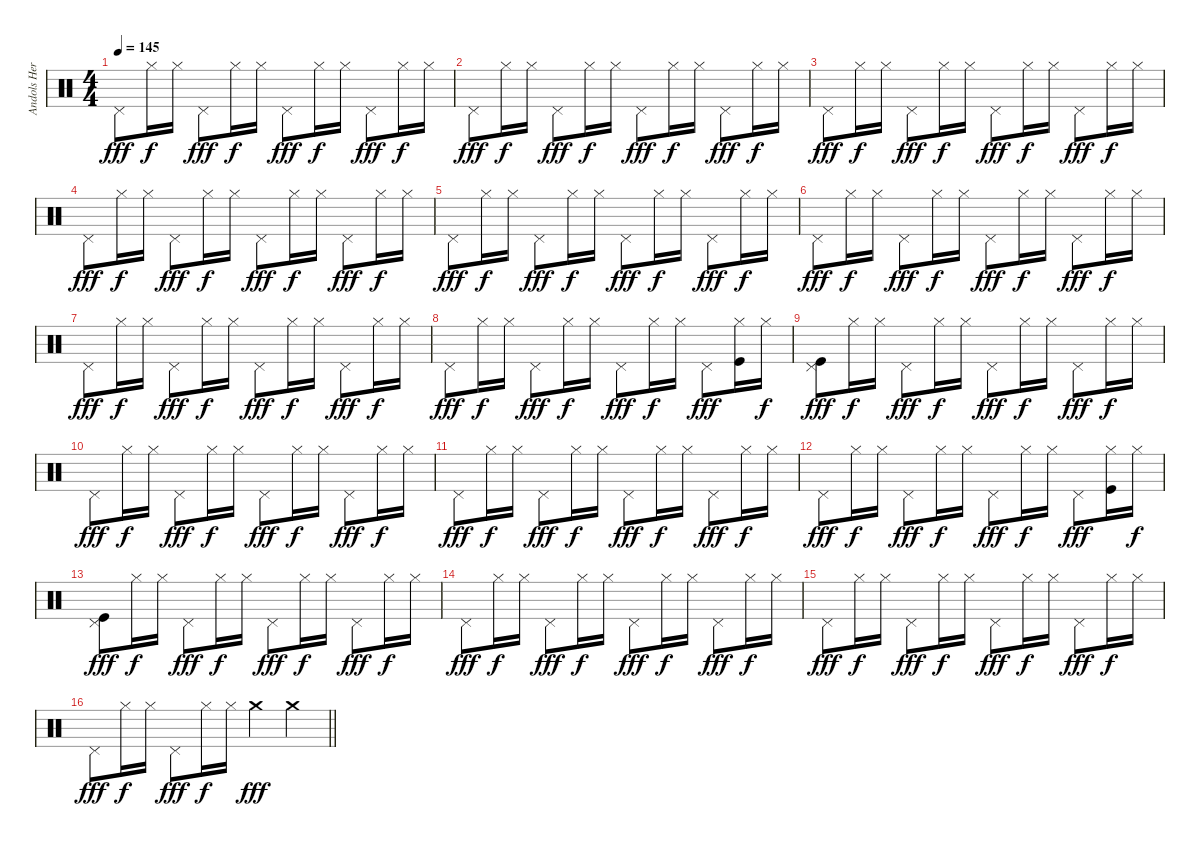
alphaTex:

\track ("Andols Herrick" "Andols Her") {instrument percussion}
\staff {score}
\articulation defaults
\ts (4 4)
\tempo 145
\clef neutral
\ks c "Pedal Hi-Hat (hit)".8{dy fff} "Hi-Hat (closed)".16{dy f} "Hi-Hat (closed)".16 "Pedal Hi-Hat (hit)".8{dy fff} "Hi-Hat (closed)".16{dy f} "Hi-Hat (closed)".16 "Pedal Hi-Hat (hit)".8{dy fff} "Hi-Hat (closed)".16{dy f} "Hi-Hat (closed)".16 "Pedal Hi-Hat (hit)".8{dy fff} "Hi-Hat (closed)".16{dy f} "Hi-Hat (closed)".16
|
"Pedal Hi-Hat (hit)".8{dy fff} "Hi-Hat (closed)".16{dy f} "Hi-Hat (closed)".16 "Pedal Hi-Hat (hit)".8{dy fff} "Hi-Hat (closed)".16{dy f} "Hi-Hat (closed)".16 "Pedal Hi-Hat (hit)".8{dy fff} "Hi-Hat (closed)".16{dy f} "Hi-Hat (closed)".16 "Pedal Hi-Hat (hit)".8{dy fff} "Hi-Hat (closed)".16{dy f} "Hi-Hat (closed)".16 |
"Pedal Hi-Hat (hit)".8{dy fff} "Hi-Hat (closed)".16{dy f} "Hi-Hat (closed)".16 "Pedal Hi-Hat (hit)".8{dy fff} "Hi-Hat (closed)".16{dy f} "Hi-Hat (closed)".16 "Pedal Hi-Hat (hit)".8{dy fff} "Hi-Hat (closed)".16{dy f} "Hi-Hat (closed)".16 "Pedal Hi-Hat (hit)".8{dy fff} "Hi-Hat (closed)".16{dy f} "Hi-Hat (closed)".16 |
"Pedal Hi-Hat (hit)".8{dy fff} "Hi-Hat (closed)".16{dy f} "Hi-Hat (closed)".16 "Pedal Hi-Hat (hit)".8{dy fff} "Hi-Hat (closed)".16{dy f} "Hi-Hat (closed)".16 "Pedal Hi-Hat (hit)".8{dy fff} "Hi-Hat (closed)".16{dy f} "Hi-Hat (closed)".16 "Pedal Hi-Hat (hit)".8{dy fff} "Hi-Hat (closed)".16{dy f} "Hi-Hat (closed)".16 |
"Pedal Hi-Hat (hit)".8{dy fff} "Hi-Hat (closed)".16{dy f} "Hi-Hat (closed)".16 "Pedal Hi-Hat (hit)".8{dy fff} "Hi-Hat (closed)".16{dy f} "Hi-Hat (closed)".16 "Pedal Hi-Hat (hit)".8{dy fff} "Hi-Hat (closed)".16{dy f} "Hi-Hat (closed)".16 "Pedal Hi-Hat (hit)".8{dy fff} "Hi-Hat (closed)".16{dy f} "Hi-Hat (closed)".16 |
"Pedal Hi-Hat (hit)".8{dy fff} "Hi-Hat (closed)".16{dy f} "Hi-Hat (closed)".16 "Pedal Hi-Hat (hit)".8{dy fff} "Hi-Hat (closed)".16{dy f} "Hi-Hat (closed)".16 "Pedal Hi-Hat (hit)".8{dy fff} "Hi-Hat (closed)".16{dy f} "Hi-Hat (closed)".16 "Pedal Hi-Hat (hit)".8{dy fff} "Hi-Hat (closed)".16{dy f} "Hi-Hat (closed)".16 |
"Pedal Hi-Hat (hit)".8{dy fff} "Hi-Hat (closed)".16{dy f} "Hi-Hat (closed)".16 "Pedal Hi-Hat (hit)".8{dy fff} "Hi-Hat (closed)".16{dy f} "Hi-Hat (closed)".16 "Pedal Hi-Hat (hit)".8{dy fff} "Hi-Hat (closed)".16{dy f} "Hi-Hat (closed)".16 "Pedal Hi-Hat (hit)".8{dy fff} "Hi-Hat (closed)".16{dy f} "Hi-Hat (closed)".16 |
"Pedal Hi-Hat (hit)".8{dy fff} "Hi-Hat (closed)".16{dy f} "Hi-Hat (closed)".16 "Pedal Hi-Hat (hit)".8{dy fff} "Hi-Hat (closed)".16{dy f} "Hi-Hat (closed)".16 "Pedal Hi-Hat (hit)".8{dy fff} "Hi-Hat (closed)".16{dy f} "Hi-Hat (closed)".16 "Pedal Hi-Hat (hit)".8{dy fff} ("Hi-Hat (closed)" "Kick (hit)").16 "Hi-Hat (closed)".16{dy f} |
("Pedal Hi-Hat (hit)" "Kick (hit)").8{dy fff} "Hi-Hat (closed)".16{dy f} "Hi-Hat (closed)".16 "Pedal Hi-Hat (hit)".8{dy fff} "Hi-Hat (closed)".16{dy f} "Hi-Hat (closed)".16 "Pedal Hi-Hat (hit)".8{dy fff} "Hi-Hat (closed)".16{dy f} "Hi-Hat (closed)".16 "Pedal Hi-Hat (hit)".8{dy fff} "Hi-Hat (closed)".16{dy f} "Hi-Hat (closed)".16 |
"Pedal Hi-Hat (hit)".8{dy fff} "Hi-Hat (closed)".16{dy f} "Hi-Hat (closed)".16 "Pedal Hi-Hat (hit)".8{dy fff} "Hi-Hat (closed)".16{dy f} "Hi-Hat (closed)".16 "Pedal Hi-Hat (hit)".8{dy fff} "Hi-Hat (closed)".16{dy f} "Hi-Hat (closed)".16 "Pedal Hi-Hat (hit)".8{dy fff} "Hi-Hat (closed)".16{dy f} "Hi-Hat (closed)".16 |
"Pedal Hi-Hat (hit)".8{dy fff} "Hi-Hat (closed)".16{dy f} "Hi-Hat (closed)".16 "Pedal Hi-Hat (hit)".8{dy fff} "Hi-Hat (closed)".16{dy f} "Hi-Hat (closed)".16 "Pedal Hi-Hat (hit)".8{dy fff} "Hi-Hat (closed)".16{dy f} "Hi-Hat (closed)".16 "Pedal Hi-Hat (hit)".8{dy fff} "Hi-Hat (closed)".16{dy f} "Hi-Hat (closed)".16 |
"Pedal Hi-Hat (hit)".8{dy fff} "Hi-Hat (closed)".16{dy f} "Hi-Hat (closed)".16 "Pedal Hi-Hat (hit)".8{dy fff} "Hi-Hat (closed)".16{dy f} "Hi-Hat (closed)".16 "Pedal Hi-Hat (hit)".8{dy fff} "Hi-Hat (closed)".16{dy f} "Hi-Hat (closed)".16 "Pedal Hi-Hat (hit)".8{dy fff} ("Hi-Hat (closed)" "Kick (hit)").16 "Hi-Hat (closed)".16{dy f} |
("Pedal Hi-Hat (hit)" "Kick (hit)").8{dy fff} "Hi-Hat (closed)".16{dy f} "Hi-Hat (closed)".16 "Pedal Hi-Hat (hit)".8{dy fff} "Hi-Hat (closed)".16{dy f} "Hi-Hat (closed)".16 "Pedal Hi-Hat (hit)".8{dy fff} "Hi-Hat (closed)".16{dy f} "Hi-Hat (closed)".16 "Pedal Hi-Hat (hit)".8{dy fff} "Hi-Hat (closed)".16{dy f} "Hi-Hat (closed)".16 |
"Pedal Hi-Hat (hit)".8{dy fff} "Hi-Hat (closed)".16{dy f} "Hi-Hat (closed)".16 "Pedal Hi-Hat (hit)".8{dy fff} "Hi-Hat (closed)".16{dy f} "Hi-Hat (closed)".16 "Pedal Hi-Hat (hit)".8{dy fff} "Hi-Hat (closed)".16{dy f} "Hi-Hat (closed)".16 "Pedal Hi-Hat (hit)".8{dy fff} "Hi-Hat (closed)".16{dy f} "Hi-Hat (closed)".16 |
"Pedal Hi-Hat (hit)".8{dy fff} "Hi-Hat (closed)".16{dy f} "Hi-Hat (closed)".16 "Pedal Hi-Hat (hit)".8{dy fff} "Hi-Hat (closed)".16{dy f} "Hi-Hat (closed)".16 "Pedal Hi-Hat (hit)".8{dy fff} "Hi-Hat (closed)".16{dy f} "Hi-Hat (closed)".16 "Pedal Hi-Hat (hit)".8{dy fff} "Hi-Hat (closed)".16{dy f} "Hi-Hat (closed)".16 |
\barLineRight lightlight "Pedal Hi-Hat (hit)".8{dy fff} "Hi-Hat (closed)".16{dy f} "Hi-Hat (closed)".16 "Pedal Hi-Hat (hit)".8{dy fff} "Hi-Hat (closed)".16{dy f} "Hi-Hat (closed)".16 "Crash medium (hit)".4{dy fff} "Crash medium (hit)".4
